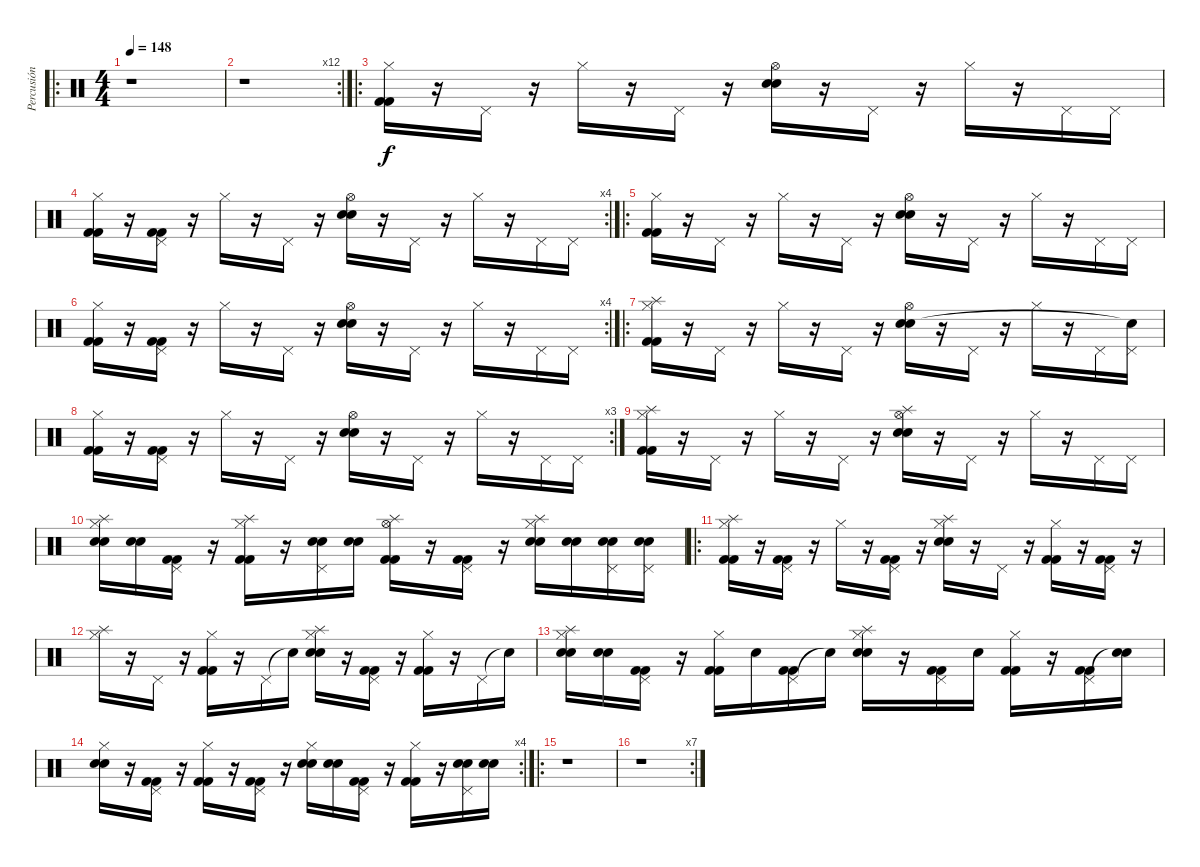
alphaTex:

\track ("Percusión" "Percusión") {instrument percussion}
\staff {score}
\articulation defaults
\ro
\ts (4 4)
\tempo 148
\clef neutral
\ks c
r.1{dy f} |
\rc 12
r.1 |
\ro
("Hi-Hat (closed)" "Kick (hit) 2" "Kick (hit) 2").16 r.16 "Pedal Hi-Hat (hit)".16 r.16 "Hi-Hat (closed)".16 r.16 "Pedal Hi-Hat (hit)".16 r.16 ("Hi-Hat (open)" "Electric Snare (hit)" "Electric Snare (hit)").16 r.16 "Pedal Hi-Hat (hit)".16 r.16 "Hi-Hat (closed)".16 r.16 "Pedal Hi-Hat (hit)".16 "Pedal Hi-Hat (hit)".16 |
\rc 4
("Hi-Hat (closed)" "Kick (hit) 2" "Kick (hit) 2").16 r.16 ("Pedal Hi-Hat (hit)" "Kick (hit) 2" "Kick (hit) 2").16 r.16 "Hi-Hat (closed)".16 r.16 "Pedal Hi-Hat (hit)".16 r.16 ("Hi-Hat (open)" "Electric Snare (hit)" "Electric Snare (hit)").16 r.16 "Pedal Hi-Hat (hit)".16 r.16 "Hi-Hat (closed)".16 r.16 "Pedal Hi-Hat (hit)".16 "Pedal Hi-Hat (hit)".16 |
\ro
("Hi-Hat (closed)" "Kick (hit) 2" "Kick (hit) 2").16 r.16 "Pedal Hi-Hat (hit)".16 r.16 "Hi-Hat (closed)".16 r.16 "Pedal Hi-Hat (hit)".16 r.16 ("Hi-Hat (open)" "Electric Snare (hit)" "Electric Snare (hit)").16 r.16 "Pedal Hi-Hat (hit)".16 r.16 "Hi-Hat (closed)".16 r.16 "Pedal Hi-Hat (hit)".16 "Pedal Hi-Hat (hit)".16 |
\rc 4
("Hi-Hat (closed)" "Kick (hit) 2" "Kick (hit) 2").16 r.16 ("Pedal Hi-Hat (hit)" "Kick (hit) 2" "Kick (hit) 2").16 r.16 "Hi-Hat (closed)".16 r.16 "Pedal Hi-Hat (hit)".16 r.16 ("Hi-Hat (open)" "Electric Snare (hit)" "Electric Snare (hit)").16 r.16 "Pedal Hi-Hat (hit)".16 r.16 "Hi-Hat (closed)".16 r.16 "Pedal Hi-Hat (hit)".16 "Pedal Hi-Hat (hit)".16 |
\ro
("Hi-Hat (closed)" "Splash (hit)" "Kick (hit) 2" "Kick (hit) 2").16 r.16 "Pedal Hi-Hat (hit)".16 r.16 "Hi-Hat (closed)".16 r.16 "Pedal Hi-Hat (hit)".16 r.16 ("Hi-Hat (open)" "Electric Snare (hit)" "Electric Snare (hit)").16 r.16 "Pedal Hi-Hat (hit)".16 r.16 "Hi-Hat (closed)".16 r.16 "Pedal Hi-Hat (hit)".16 ("Pedal Hi-Hat (hit)" "Snare (hit)"{t}).16 |
\rc 3
("Hi-Hat (closed)" "Kick (hit) 2" "Kick (hit) 2").16 r.16 ("Pedal Hi-Hat (hit)" "Kick (hit) 2" "Kick (hit) 2").16 r.16 "Hi-Hat (closed)".16 r.16 "Pedal Hi-Hat (hit)".16 r.16 ("Hi-Hat (open)" "Electric Snare (hit)" "Electric Snare (hit)").16 r.16 "Pedal Hi-Hat (hit)".16 r.16 "Hi-Hat (closed)".16 r.16 "Pedal Hi-Hat (hit)".16 "Pedal Hi-Hat (hit)".16 |
("Hi-Hat (closed)" "Splash (hit)" "Kick (hit) 2" "Kick (hit) 2").16 r.16 "Pedal Hi-Hat (hit)".16 r.16 "Hi-Hat (closed)".16 r.16 "Pedal Hi-Hat (hit)".16 r.16 ("Hi-Hat (open)" "Splash (hit)" "Electric Snare (hit)" "Electric Snare (hit)").16 r.16 "Pedal Hi-Hat (hit)".16 r.16 "Hi-Hat (closed)".16 r.16 "Pedal Hi-Hat (hit)".16 "Pedal Hi-Hat (hit)".16 |
("Hi-Hat (closed)" "Splash (hit)" "Electric Snare (hit)" "Electric Snare (hit)").16 ("Electric Snare (hit)" "Electric Snare (hit)").16 ("Pedal Hi-Hat (hit)" "Kick (hit) 2" "Kick (hit) 2").16 r.16 ("Hi-Hat (closed)" "Splash (hit)" "Kick (hit) 2" "Kick (hit) 2").16 r.16 ("Pedal Hi-Hat (hit)" "Electric Snare (hit)" "Electric Snare (hit)").16 ("Electric Snare (hit)" "Electric Snare (hit)").16 ("Hi-Hat (open)" "Splash (hit)" "Kick (hit) 2" "Kick (hit) 2").16 r.16 ("Pedal Hi-Hat (hit)" "Kick (hit) 2" "Kick (hit) 2").16 r.16 ("Hi-Hat (closed)" "Splash (hit)" "Electric Snare (hit)" "Electric Snare (hit)").16 ("Electric Snare (hit)" "Electric Snare (hit)").16 ("Pedal Hi-Hat (hit)" "Electric Snare (hit)" "Electric Snare (hit)").16 ("Pedal Hi-Hat (hit)" "Electric Snare (hit)" "Electric Snare (hit)").16 |
\ro
("Hi-Hat (closed)" "Splash (hit)" "Kick (hit) 2" "Kick (hit) 2").16 r.16 ("Pedal Hi-Hat (hit)" "Kick (hit) 2" "Kick (hit) 2").16 r.16 "Hi-Hat (closed)".16 r.16 ("Pedal Hi-Hat (hit)" "Kick (hit) 2" "Kick (hit) 2").16 r.16 ("Hi-Hat (closed)" "Splash (hit)" "Electric Snare (hit)" "Electric Snare (hit)").16 r.16 "Pedal Hi-Hat (hit)".16 r.16 ("Hi-Hat (closed)" "Kick (hit) 2" "Kick (hit) 2").16 r.16 ("Pedal Hi-Hat (hit)" "Kick (hit) 2" "Kick (hit) 2").16 r.16 |
("Hi-Hat (closed)" "Splash (hit)").16 r.16 "Pedal Hi-Hat (hit)".16 r.16 ("Hi-Hat (closed)" "Kick (hit) 2" "Kick (hit) 2").16 r.16 "Pedal Hi-Hat (hit)".16 "Snare (hit)"{t}.16 ("Hi-Hat (closed)" "Splash (hit)" "Electric Snare (hit)" "Electric Snare (hit)").16 r.16 ("Pedal Hi-Hat (hit)" "Kick (hit) 2" "Kick (hit) 2").16 r.16 ("Hi-Hat (closed)" "Kick (hit) 2" "Kick (hit) 2").16 r.16 "Pedal Hi-Hat (hit)".16 "Snare (hit)"{t}.16 |
("Hi-Hat (closed)" "Splash (hit)" "Electric Snare (hit)" "Electric Snare (hit)").16 ("Electric Snare (hit)" "Electric Snare (hit)").16 ("Pedal Hi-Hat (hit)" "Kick (hit) 2" "Kick (hit) 2").16 r.16 ("Hi-Hat (closed)" "Kick (hit) 2" "Kick (hit) 2").16 "Electric Snare (hit)".16 ("Pedal Hi-Hat (hit)" "Kick (hit) 2" "Kick (hit) 2").16 "Snare (hit)"{t}.16 ("Hi-Hat (closed)" "Splash (hit)" "Electric Snare (hit)" "Electric Snare (hit)").16 r.16 ("Pedal Hi-Hat (hit)" "Kick (hit) 2" "Kick (hit) 2").16 "Electric Snare (hit)".16 ("Hi-Hat (closed)" "Kick (hit) 2" "Kick (hit) 2").16 r.16 ("Pedal Hi-Hat (hit)" "Kick (hit) 2" "Kick (hit) 2").16 ("Snare (hit)"{t} "Electric Snare (hit)").16 |
\rc 4
("Hi-Hat (closed)" "Electric Snare (hit)" "Electric Snare (hit)").16 r.16 ("Pedal Hi-Hat (hit)" "Kick (hit) 2" "Kick (hit) 2").16 r.16 ("Hi-Hat (closed)" "Kick (hit) 2" "Kick (hit) 2").16 r.16 ("Pedal Hi-Hat (hit)" "Kick (hit) 2" "Kick (hit) 2").16 r.16 ("Hi-Hat (closed)" "Electric Snare (hit)" "Electric Snare (hit)").16 ("Electric Snare (hit)" "Electric Snare (hit)").16 ("Pedal Hi-Hat (hit)" "Kick (hit) 2" "Kick (hit) 2").16 r.16 ("Hi-Hat (closed)" "Kick (hit) 2" "Kick (hit) 2").16 r.16 ("Pedal Hi-Hat (hit)" "Electric Snare (hit)" "Electric Snare (hit)").16 ("Electric Snare (hit)" "Electric Snare (hit)").16 |
\ro
r.1 |
\rc 7
r.1
